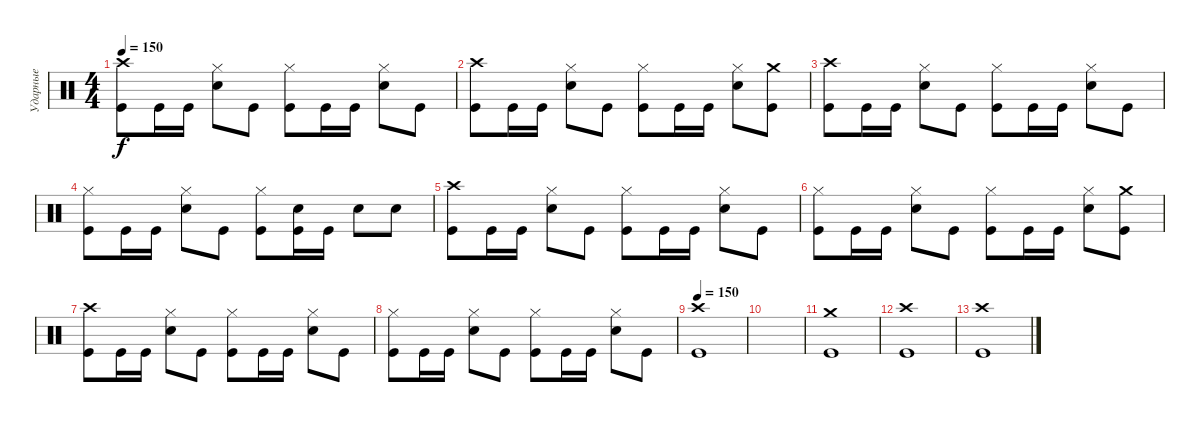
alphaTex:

\track ("Ударные" "Ударные") {instrument percussion}
\staff {score}
\articulation defaults
\ts (4 4)
\tempo 150
\clef neutral
\ks c
("Crash high (hit)" "Kick (hit)").8{dy f} "Kick (hit)".16 "Kick (hit)".16 ("Hi-Hat (closed)" "Electric Snare (hit)").8 "Kick (hit)".8 ("Hi-Hat (closed)" "Kick (hit)").8 "Kick (hit)".16 "Kick (hit)".16 ("Hi-Hat (closed)" "Electric Snare (hit)").8 "Kick (hit)".8 |
("Crash high (hit)" "Kick (hit)").8 "Kick (hit)".16 "Kick (hit)".16 ("Hi-Hat (closed)" "Electric Snare (hit)").8 "Kick (hit)".8 ("Hi-Hat (closed)" "Kick (hit)").8 "Kick (hit)".16 "Kick (hit)".16 ("Hi-Hat (closed)" "Electric Snare (hit)").8 ("Crash medium (hit)" "Kick (hit)").8 |
("Crash high (hit)" "Kick (hit)").8 "Kick (hit)".16 "Kick (hit)".16 ("Hi-Hat (closed)" "Electric Snare (hit)").8 "Kick (hit)".8 ("Hi-Hat (closed)" "Kick (hit)").8 "Kick (hit)".16 "Kick (hit)".16 ("Hi-Hat (closed)" "Electric Snare (hit)").8 "Kick (hit)".8 |
("Hi-Hat (closed)" "Kick (hit)").8 "Kick (hit)".16 "Kick (hit)".16 ("Hi-Hat (closed)" "Electric Snare (hit)").8 "Kick (hit)".8 ("Hi-Hat (closed)" "Kick (hit)").8 ("Electric Snare (hit)" "Kick (hit)").16 "Kick (hit)".16 "Electric Snare (hit)".8 "Electric Snare (hit)".8 |
("Crash high (hit)" "Kick (hit)").8 "Kick (hit)".16 "Kick (hit)".16 ("Hi-Hat (closed)" "Electric Snare (hit)").8 "Kick (hit)".8 ("Hi-Hat (closed)" "Kick (hit)").8 "Kick (hit)".16 "Kick (hit)".16 ("Hi-Hat (closed)" "Electric Snare (hit)").8 "Kick (hit)".8 |
("Hi-Hat (closed)" "Kick (hit)").8 "Kick (hit)".16 "Kick (hit)".16 ("Hi-Hat (closed)" "Electric Snare (hit)").8 "Kick (hit)".8 ("Hi-Hat (closed)" "Kick (hit)").8 "Kick (hit)".16 "Kick (hit)".16 ("Hi-Hat (closed)" "Electric Snare (hit)").8 ("Crash medium (hit)" "Kick (hit)").8 |
("Crash high (hit)" "Kick (hit)").8 "Kick (hit)".16 "Kick (hit)".16 ("Hi-Hat (closed)" "Electric Snare (hit)").8 "Kick (hit)".8 ("Hi-Hat (closed)" "Kick (hit)").8 "Kick (hit)".16 "Kick (hit)".16 ("Hi-Hat (closed)" "Electric Snare (hit)").8 "Kick (hit)".8 |
("Hi-Hat (closed)" "Kick (hit)").8 "Kick (hit)".16 "Kick (hit)".16 ("Hi-Hat (closed)" "Electric Snare (hit)").8 "Kick (hit)".8 ("Hi-Hat (closed)" "Kick (hit)").8 "Kick (hit)".16 "Kick (hit)".16 ("Hi-Hat (closed)" "Electric Snare (hit)").8 "Kick (hit)".8 |
\tempo 150
("Crash high (hit)" "Kick (hit)").1 |
|
("Crash medium (hit)" "Kick (hit)").1 |
("Crash high (hit)" "Kick (hit)").1 |
("Crash high (hit)" "Kick (hit)").1
